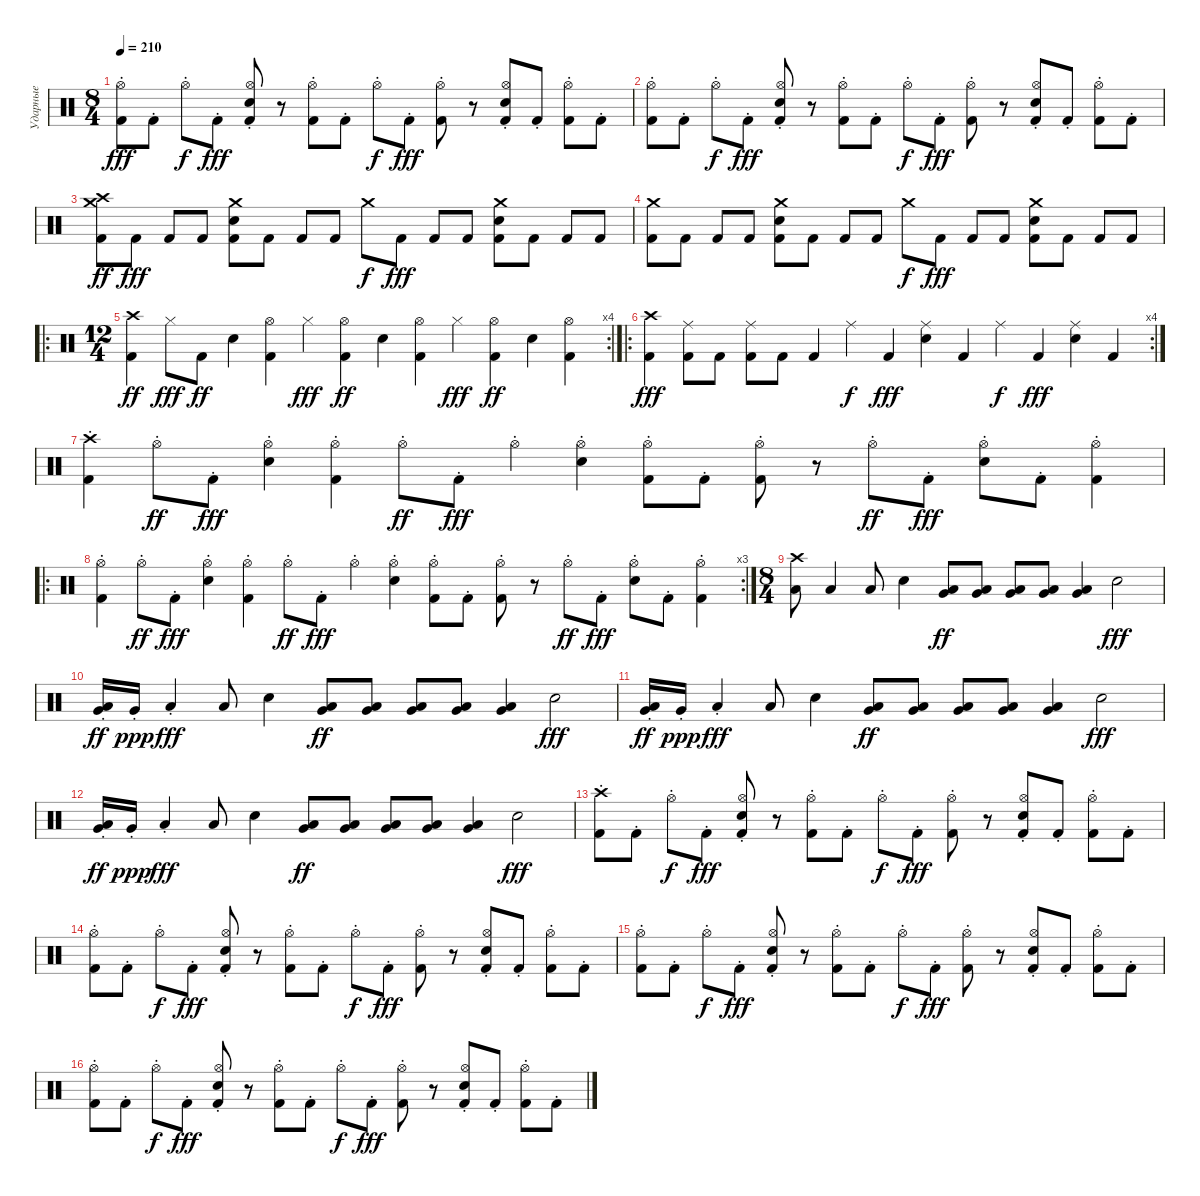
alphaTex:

\track ("Ударные" "Ударные") {instrument percussion}
\staff {score}
\articulation defaults
\ts (8 4)
\tempo 210
\clef neutral
\ks c
("Kick (hit) 2"{st} "Hi-Hat (open)"{st}).8{dy fff} "Kick (hit) 2"{st}.8 "Hi-Hat (open)"{st}.8{dy f} "Kick (hit) 2"{st}.8{dy fff} ("Kick (hit) 2"{st} "Hi-Hat (open)"{st} "Electric Snare (hit)"{st}).8 r.8 ("Kick (hit) 2"{st} "Hi-Hat (open)"{st}).8 "Kick (hit) 2"{st}.8 "Hi-Hat (open)"{st}.8{dy f} "Kick (hit) 2"{st}.8{dy fff} ("Kick (hit) 2"{st} "Hi-Hat (open)"{st}).8 r.8 ("Kick (hit) 2"{st} "Hi-Hat (open)"{st} "Electric Snare (hit)"{st}).8 "Kick (hit) 2"{st}.8 ("Kick (hit) 2"{st} "Hi-Hat (open)"{st}).8 "Kick (hit) 2"{st}.8 |
("Kick (hit) 2"{st} "Hi-Hat (open)"{st}).8 "Kick (hit) 2"{st}.8 "Hi-Hat (open)"{st}.8{dy f} "Kick (hit) 2"{st}.8{dy fff} ("Kick (hit) 2"{st} "Hi-Hat (open)"{st} "Electric Snare (hit)"{st}).8 r.8 ("Kick (hit) 2"{st} "Hi-Hat (open)"{st}).8 "Kick (hit) 2"{st}.8 "Hi-Hat (open)"{st}.8{dy f} "Kick (hit) 2"{st}.8{dy fff} ("Kick (hit) 2"{st} "Hi-Hat (open)"{st}).8 r.8 ("Kick (hit) 2"{st} "Hi-Hat (open)"{st} "Electric Snare (hit)"{st}).8 "Kick (hit) 2"{st}.8 ("Kick (hit) 2"{st} "Hi-Hat (open)"{st}).8 "Kick (hit) 2"{st}.8 |
("Kick (hit) 2" "Crash high (hit)" "Crash medium (hit)").8{dy ff} "Kick (hit) 2".8{dy fff} "Kick (hit) 2".8 "Kick (hit) 2".8 ("Kick (hit) 2" "Crash medium (hit)" "Electric Snare (hit)").8 "Kick (hit) 2".8 "Kick (hit) 2".8 "Kick (hit) 2".8 "Crash medium (hit)".8{dy f} "Kick (hit) 2".8{dy fff} "Kick (hit) 2".8 "Kick (hit) 2".8 ("Kick (hit) 2" "Crash medium (hit)" "Electric Snare (hit)").8 "Kick (hit) 2".8 "Kick (hit) 2".8 "Kick (hit) 2".8 |
("Crash medium (hit)" "Kick (hit) 2").8 "Kick (hit) 2".8 "Kick (hit) 2".8 "Kick (hit) 2".8 ("Kick (hit) 2" "Crash medium (hit)" "Electric Snare (hit)").8 "Kick (hit) 2".8 "Kick (hit) 2".8 "Kick (hit) 2".8 "Crash medium (hit)".8{dy f} "Kick (hit) 2".8{dy fff} "Kick (hit) 2".8 "Kick (hit) 2".8 ("Kick (hit) 2" "Crash medium (hit)" "Electric Snare (hit)").8 "Kick (hit) 2".8 "Kick (hit) 2".8 "Kick (hit) 2".8 |
\ro
\rc 4
\ts (12 4)
("Crash high (hit)" "Kick (hit) 2").4{dy ff} "Hi-Hat (closed)".8{dy fff} "Kick (hit) 2".8{dy ff} "Electric Snare (hit)".4 ("Hi-Hat (open)" "Kick (hit) 2").4 "Hi-Hat (closed)".4{dy fff} ("Hi-Hat (open)" "Kick (hit) 2").4{dy ff} "Electric Snare (hit)".4 ("Hi-Hat (open)" "Kick (hit) 2").4 "Hi-Hat (closed)".4{dy fff} ("Hi-Hat (open)" "Kick (hit) 2").4{dy ff} "Electric Snare (hit)".4 ("Hi-Hat (open)" "Kick (hit) 2").4 |
\ro
\rc 4
("Crash high (hit)" "Kick (hit) 2").4{dy fff} ("Ride (middle)" "Kick (hit) 2").8 "Kick (hit) 2".8 ("Ride (middle)" "Kick (hit) 2").8 "Kick (hit) 2".8 "Kick (hit) 2".4 "Ride (middle)".4{dy f} "Kick (hit) 2".4{dy fff} ("Electric Snare (hit)" "Ride (middle)").4 "Kick (hit) 2".4 "Ride (middle)".4{dy f} "Kick (hit) 2".4{dy fff} ("Electric Snare (hit)" "Ride (middle)").4 "Kick (hit) 2".4 |
("Crash high (hit)"{st} "Kick (hit) 2"{st}).4 "Hi-Hat (open)"{st}.8{dy ff} "Kick (hit) 2"{st}.8{dy fff} ("Hi-Hat (open)"{st} "Electric Snare (hit)"{st}).4 ("Hi-Hat (open)"{st} "Kick (hit) 2"{st}).4 "Hi-Hat (open)"{st}.8{dy ff} "Kick (hit) 2"{st}.8{dy fff} "Hi-Hat (open)"{st}.4 ("Hi-Hat (open)"{st} "Electric Snare (hit)"{st}).4 ("Hi-Hat (open)"{st} "Kick (hit) 2"{st}).8 "Kick (hit) 2"{st}.8 ("Hi-Hat (open)"{st} "Kick (hit) 2"{st}).8 r.8 "Hi-Hat (open)"{st}.8{dy ff} "Kick (hit) 2"{st}.8{dy fff} ("Hi-Hat (open)"{st} "Electric Snare (hit)"{st}).8 "Kick (hit) 2"{st}.8 ("Hi-Hat (open)"{st} "Kick (hit) 2"{st}).4 |
\ro
\rc 3
("Hi-Hat (open)"{st} "Kick (hit) 2"{st}).4 "Hi-Hat (open)"{st}.8{dy ff} "Kick (hit) 2"{st}.8{dy fff} ("Hi-Hat (open)"{st} "Electric Snare (hit)"{st}).4 ("Hi-Hat (open)"{st} "Kick (hit) 2"{st}).4 "Hi-Hat (open)"{st}.8{dy ff} "Kick (hit) 2"{st}.8{dy fff} "Hi-Hat (open)"{st}.4 ("Hi-Hat (open)"{st} "Electric Snare (hit)"{st}).4 ("Hi-Hat (open)"{st} "Kick (hit) 2"{st}).8 "Kick (hit) 2"{st}.8 ("Hi-Hat (open)"{st} "Kick (hit) 2"{st}).8 r.8 "Hi-Hat (open)"{st}.8{dy ff} "Kick (hit) 2"{st}.8{dy fff} ("Hi-Hat (open)"{st} "Electric Snare (hit)"{st}).8 "Kick (hit) 2"{st}.8 ("Hi-Hat (open)"{st} "Kick (hit) 2"{st}).4 |
\ts (8 4)
("Crash high (hit)" "Low Floor Tom (hit)").8 "Low Floor Tom (hit)".4 "Low Floor Tom (hit)".8 "Electric Snare (hit)".4 ("Low Floor Tom (hit)" "Very Low Tom (hit)").8{bd 120 dy ff} ("Low Floor Tom (hit)" "Very Low Tom (hit)").8{bd 120} ("Low Floor Tom (hit)" "Very Low Tom (hit)").8{bd 120} ("Low Floor Tom (hit)" "Very Low Tom (hit)").8{bd 120} ("Low Floor Tom (hit)" "Very Low Tom (hit)").4{bd 120} "Electric Snare (hit)".2{dy fff} |
("Low Floor Tom (hit)"{st} "Very Low Tom (hit)"{st}).16{bd 120 dy ff} "Very Low Tom (hit)"{st}.16{dy ppp} "Low Floor Tom (hit)"{st}.4{dy fff} "Low Floor Tom (hit)".8 "Electric Snare (hit)".4 ("Low Floor Tom (hit)" "Very Low Tom (hit)").8{bd 120 dy ff} ("Low Floor Tom (hit)" "Very Low Tom (hit)").8{bd 120} ("Low Floor Tom (hit)" "Very Low Tom (hit)").8{bd 120} ("Low Floor Tom (hit)" "Very Low Tom (hit)").8{bd 120} ("Low Floor Tom (hit)" "Very Low Tom (hit)").4{bd 120} "Electric Snare (hit)".2{dy fff} |
("Low Floor Tom (hit)"{st} "Very Low Tom (hit)"{st}).16{bd 120 dy ff} "Very Low Tom (hit)"{st}.16{dy ppp} "Low Floor Tom (hit)"{st}.4{dy fff} "Low Floor Tom (hit)".8 "Electric Snare (hit)".4 ("Low Floor Tom (hit)" "Very Low Tom (hit)").8{bd 120 dy ff} ("Low Floor Tom (hit)" "Very Low Tom (hit)").8{bd 120} ("Low Floor Tom (hit)" "Very Low Tom (hit)").8{bd 120} ("Low Floor Tom (hit)" "Very Low Tom (hit)").8{bd 120} ("Low Floor Tom (hit)" "Very Low Tom (hit)").4{bd 120} "Electric Snare (hit)".2{dy fff} |
("Low Floor Tom (hit)"{st} "Very Low Tom (hit)"{st}).16{bd 120 dy ff} "Very Low Tom (hit)"{st}.16{dy ppp} "Low Floor Tom (hit)"{st}.4{dy fff} "Low Floor Tom (hit)".8 "Electric Snare (hit)".4 ("Low Floor Tom (hit)" "Very Low Tom (hit)").8{bd 120 dy ff} ("Low Floor Tom (hit)" "Very Low Tom (hit)").8{bd 120} ("Low Floor Tom (hit)" "Very Low Tom (hit)").8{bd 120} ("Low Floor Tom (hit)" "Very Low Tom (hit)").8{bd 120} ("Low Floor Tom (hit)" "Very Low Tom (hit)").4{bd 120} "Electric Snare (hit)".2{dy fff} |
("Kick (hit) 2"{st} "Crash high (hit)"{st}).8 "Kick (hit) 2"{st}.8 "Hi-Hat (open)"{st}.8{dy f} "Kick (hit) 2"{st}.8{dy fff} ("Kick (hit) 2"{st} "Hi-Hat (open)"{st} "Electric Snare (hit)"{st}).8 r.8 ("Kick (hit) 2"{st} "Hi-Hat (open)"{st}).8 "Kick (hit) 2"{st}.8 "Hi-Hat (open)"{st}.8{dy f} "Kick (hit) 2"{st}.8{dy fff} ("Kick (hit) 2"{st} "Hi-Hat (open)"{st}).8 r.8 ("Kick (hit) 2"{st} "Hi-Hat (open)"{st} "Electric Snare (hit)"{st}).8 "Kick (hit) 2"{st}.8 ("Kick (hit) 2"{st} "Hi-Hat (open)"{st}).8 "Kick (hit) 2"{st}.8 |
("Kick (hit) 2"{st} "Hi-Hat (open)"{st}).8 "Kick (hit) 2"{st}.8 "Hi-Hat (open)"{st}.8{dy f} "Kick (hit) 2"{st}.8{dy fff} ("Kick (hit) 2"{st} "Hi-Hat (open)"{st} "Electric Snare (hit)"{st}).8 r.8 ("Kick (hit) 2"{st} "Hi-Hat (open)"{st}).8 "Kick (hit) 2"{st}.8 "Hi-Hat (open)"{st}.8{dy f} "Kick (hit) 2"{st}.8{dy fff} ("Kick (hit) 2"{st} "Hi-Hat (open)"{st}).8 r.8 ("Kick (hit) 2"{st} "Hi-Hat (open)"{st} "Electric Snare (hit)"{st}).8 "Kick (hit) 2"{st}.8 ("Kick (hit) 2"{st} "Hi-Hat (open)"{st}).8 "Kick (hit) 2"{st}.8 |
("Kick (hit) 2"{st} "Hi-Hat (open)"{st}).8 "Kick (hit) 2"{st}.8 "Hi-Hat (open)"{st}.8{dy f} "Kick (hit) 2"{st}.8{dy fff} ("Kick (hit) 2"{st} "Hi-Hat (open)"{st} "Electric Snare (hit)"{st}).8 r.8 ("Kick (hit) 2"{st} "Hi-Hat (open)"{st}).8 "Kick (hit) 2"{st}.8 "Hi-Hat (open)"{st}.8{dy f} "Kick (hit) 2"{st}.8{dy fff} ("Kick (hit) 2"{st} "Hi-Hat (open)"{st}).8 r.8 ("Kick (hit) 2"{st} "Hi-Hat (open)"{st} "Electric Snare (hit)"{st}).8 "Kick (hit) 2"{st}.8 ("Kick (hit) 2"{st} "Hi-Hat (open)"{st}).8 "Kick (hit) 2"{st}.8 |
("Kick (hit) 2"{st} "Hi-Hat (open)"{st}).8 "Kick (hit) 2"{st}.8 "Hi-Hat (open)"{st}.8{dy f} "Kick (hit) 2"{st}.8{dy fff} ("Kick (hit) 2"{st} "Hi-Hat (open)"{st} "Electric Snare (hit)"{st}).8 r.8 ("Kick (hit) 2"{st} "Hi-Hat (open)"{st}).8 "Kick (hit) 2"{st}.8 "Hi-Hat (open)"{st}.8{dy f} "Kick (hit) 2"{st}.8{dy fff} ("Kick (hit) 2"{st} "Hi-Hat (open)"{st}).8 r.8 ("Kick (hit) 2"{st} "Hi-Hat (open)"{st} "Electric Snare (hit)"{st}).8 "Kick (hit) 2"{st}.8 ("Kick (hit) 2"{st} "Hi-Hat (open)"{st}).8 "Kick (hit) 2"{st}.8
